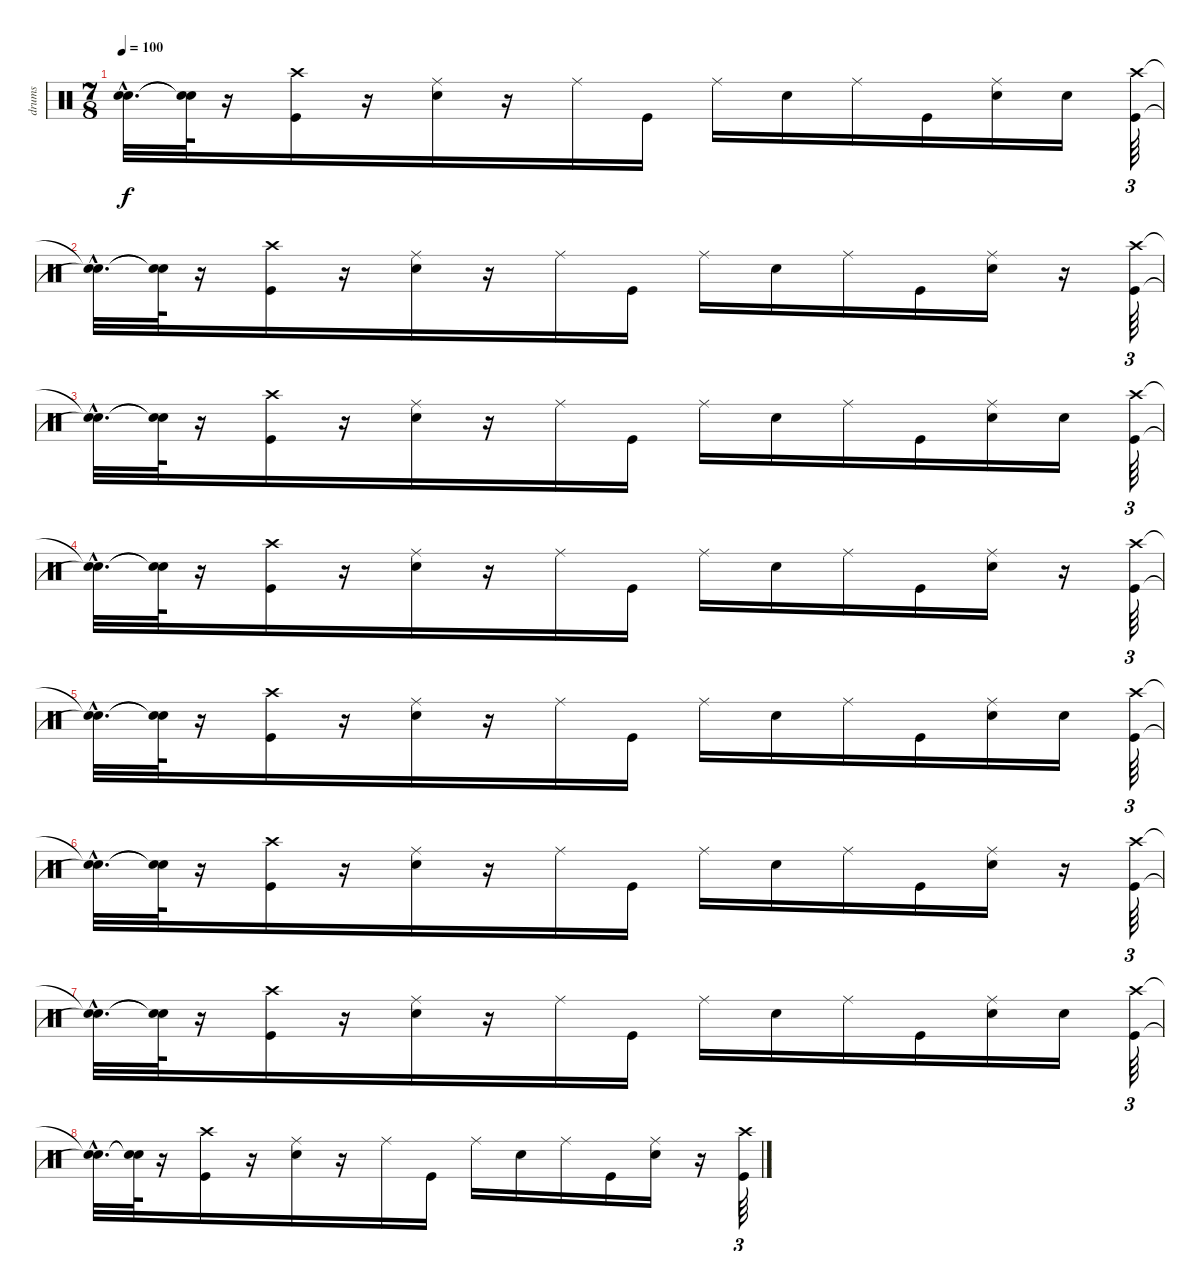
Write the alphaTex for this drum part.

\track ("drums" "drums") {instrument percussion}
\staff {score}
\articulation defaults
\ts (7 8)
\tempo 100
\clef neutral
\ks c
("Snare (hit)"{hac t} "Snare (hit)"{hac t}).32{d dy f} ("Snare (hit)"{t} "Snare (hit)"{t}).64 r.16 ("Kick (hit)" "Crash high (hit)").16 r.16 ("Electric Snare (hit)" "Ride (middle)").16 r.16 "Ride (middle)".16 "Kick (hit)".16 "Ride (middle)".16 "Electric Snare (hit)".16 "Ride (middle)".16 "Kick (hit)".16 ("Electric Snare (hit)" "Ride (middle)").16 "Electric Snare (hit)".16 ("Crash high (hit)" "Kick (hit)").64{tu (3 2)} |
("Snare (hit)"{hac t} "Snare (hit)"{hac t}).32{d} ("Snare (hit)"{t} "Snare (hit)"{t}).64 r.16 ("Kick (hit)" "Crash high (hit)").16 r.16 ("Electric Snare (hit)" "Ride (middle)").16 r.16 "Ride (middle)".16 "Kick (hit)".16 "Ride (middle)".16 "Electric Snare (hit)".16 "Ride (middle)".16 "Kick (hit)".16 ("Electric Snare (hit)" "Ride (middle)").16 r.16 ("Crash high (hit)" "Kick (hit)").64{tu (3 2)} |
("Snare (hit)"{hac t} "Snare (hit)"{hac t}).32{d} ("Snare (hit)"{t} "Snare (hit)"{t}).64 r.16 ("Kick (hit)" "Crash high (hit)").16 r.16 ("Electric Snare (hit)" "Ride (middle)").16 r.16 "Ride (middle)".16 "Kick (hit)".16 "Ride (middle)".16 "Electric Snare (hit)".16 "Ride (middle)".16 "Kick (hit)".16 ("Electric Snare (hit)" "Ride (middle)").16 "Electric Snare (hit)".16 ("Crash high (hit)" "Kick (hit)").64{tu (3 2)} |
("Snare (hit)"{hac t} "Snare (hit)"{hac t}).32{d} ("Snare (hit)"{t} "Snare (hit)"{t}).64 r.16 ("Kick (hit)" "Crash high (hit)").16 r.16 ("Electric Snare (hit)" "Ride (middle)").16 r.16 "Ride (middle)".16 "Kick (hit)".16 "Ride (middle)".16 "Electric Snare (hit)".16 "Ride (middle)".16 "Kick (hit)".16 ("Electric Snare (hit)" "Ride (middle)").16 r.16 ("Crash high (hit)" "Kick (hit)").64{tu (3 2)} |
("Snare (hit)"{hac t} "Snare (hit)"{hac t}).32{d} ("Snare (hit)"{t} "Snare (hit)"{t}).64 r.16 ("Kick (hit)" "Crash high (hit)").16 r.16 ("Electric Snare (hit)" "Ride (middle)").16 r.16 "Ride (middle)".16 "Kick (hit)".16 "Ride (middle)".16 "Electric Snare (hit)".16 "Ride (middle)".16 "Kick (hit)".16 ("Electric Snare (hit)" "Ride (middle)").16 "Electric Snare (hit)".16 ("Crash high (hit)" "Kick (hit)").64{tu (3 2)} |
("Snare (hit)"{hac t} "Snare (hit)"{hac t}).32{d} ("Snare (hit)"{t} "Snare (hit)"{t}).64 r.16 ("Kick (hit)" "Crash high (hit)").16 r.16 ("Electric Snare (hit)" "Ride (middle)").16 r.16 "Ride (middle)".16 "Kick (hit)".16 "Ride (middle)".16 "Electric Snare (hit)".16 "Ride (middle)".16 "Kick (hit)".16 ("Electric Snare (hit)" "Ride (middle)").16 r.16 ("Crash high (hit)" "Kick (hit)").64{tu (3 2)} |
("Snare (hit)"{hac t} "Snare (hit)"{hac t}).32{d} ("Snare (hit)"{t} "Snare (hit)"{t}).64 r.16 ("Kick (hit)" "Crash high (hit)").16 r.16 ("Electric Snare (hit)" "Ride (middle)").16 r.16 "Ride (middle)".16 "Kick (hit)".16 "Ride (middle)".16 "Electric Snare (hit)".16 "Ride (middle)".16 "Kick (hit)".16 ("Electric Snare (hit)" "Ride (middle)").16 "Electric Snare (hit)".16 ("Crash high (hit)" "Kick (hit)").64{tu (3 2)} |
("Snare (hit)"{hac t} "Snare (hit)"{hac t}).32{d} ("Snare (hit)"{t} "Snare (hit)"{t}).64 r.16 ("Kick (hit)" "Crash high (hit)").16 r.16 ("Electric Snare (hit)" "Ride (middle)").16 r.16 "Ride (middle)".16 "Kick (hit)".16 "Ride (middle)".16 "Electric Snare (hit)".16 "Ride (middle)".16 "Kick (hit)".16 ("Electric Snare (hit)" "Ride (middle)").16 r.16 ("Crash high (hit)" "Kick (hit)").64{tu (3 2)}
